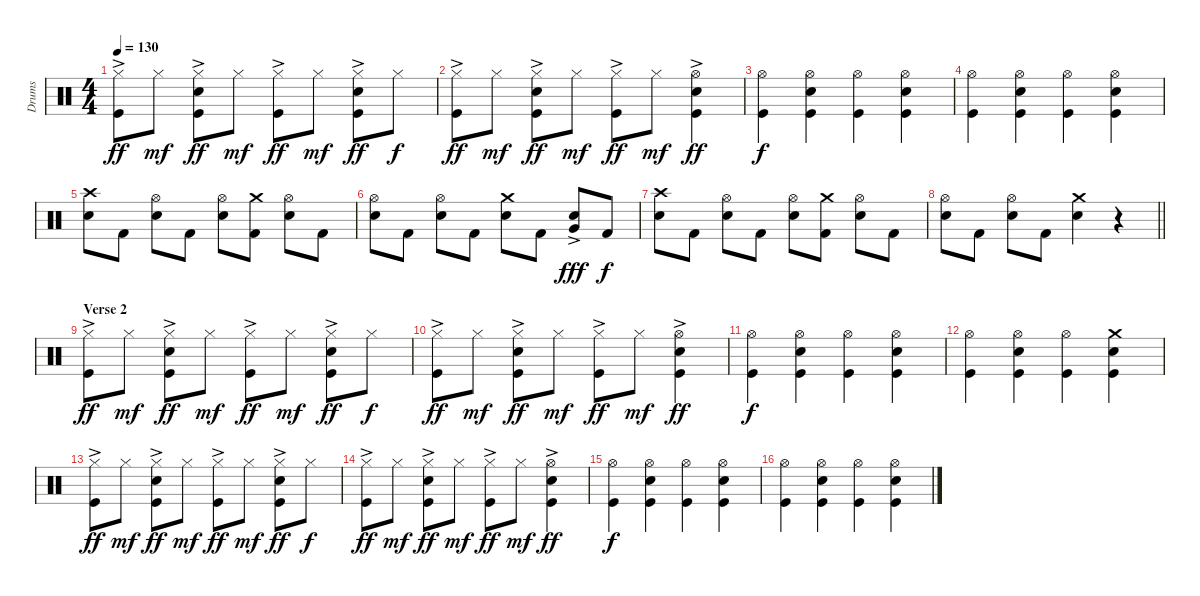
\track ("Drums" "Drums") {instrument percussion}
\staff {score}
\articulation defaults
\ts (4 4)
\tempo 130
\clef neutral
\ks c
("Hi-Hat (closed)"{ac} "Kick (hit)").8{dy ff} "Hi-Hat (closed)".8{dy mf} ("Hi-Hat (closed)"{ac} "Snare (hit) 2" "Kick (hit)").8{dy ff} "Hi-Hat (closed)".8{dy mf} ("Hi-Hat (closed)"{ac} "Kick (hit)").8{dy ff} "Hi-Hat (closed)".8{dy mf} ("Hi-Hat (closed)"{ac} "Snare (hit) 2" "Kick (hit)").8{dy ff} "Hi-Hat (closed)".8{dy f} |
("Hi-Hat (closed)"{ac} "Kick (hit)").8{dy ff} "Hi-Hat (closed)".8{dy mf} ("Hi-Hat (closed)"{ac} "Snare (hit) 2" "Kick (hit)").8{dy ff} "Hi-Hat (closed)".8{dy mf} ("Hi-Hat (closed)"{ac} "Kick (hit)").8{dy ff} "Hi-Hat (closed)".8{dy mf} ("Hi-Hat (open)"{ac} "Snare (hit) 2" "Kick (hit)").4{dy ff} |
("Hi-Hat (open)" "Kick (hit)").4{dy f} ("Hi-Hat (open)" "Snare (hit) 2" "Kick (hit)").4 ("Hi-Hat (open)" "Kick (hit)").4 ("Hi-Hat (open)" "Snare (hit) 2" "Kick (hit)").4 |
("Hi-Hat (open)" "Kick (hit)").4 ("Hi-Hat (open)" "Snare (hit) 2" "Kick (hit)").4 ("Hi-Hat (open)" "Kick (hit)").4 ("Hi-Hat (open)" "Snare (hit) 2" "Kick (hit)").4 |
("Crash high (hit)" "Snare (hit) 2").8 "Kick (hit) 2".8 ("Hi-Hat (open)" "Snare (hit) 2").8 "Kick (hit) 2".8 ("Hi-Hat (open)" "Snare (hit) 2").8 ("Crash medium (hit)" "Kick (hit) 2").8 ("Hi-Hat (open)" "Snare (hit) 2").8 "Kick (hit) 2".8 |
("Hi-Hat (open)" "Snare (hit) 2").8 "Kick (hit) 2".8 ("Hi-Hat (open)" "Snare (hit) 2").8 "Kick (hit) 2".8 ("Crash medium (hit)" "Snare (hit) 2").8 "Kick (hit) 2".8 ("Very Low Tom (hit)"{ac} "Snare (hit) 2").8{dy fff} "Kick (hit) 2".8{dy f} |
("Crash high (hit)" "Snare (hit) 2").8 "Kick (hit) 2".8 ("Hi-Hat (open)" "Snare (hit) 2").8 "Kick (hit) 2".8 ("Hi-Hat (open)" "Snare (hit) 2").8 ("Crash medium (hit)" "Kick (hit) 2").8 ("Hi-Hat (open)" "Snare (hit) 2").8 "Kick (hit) 2".8 |
\barLineRight lightlight
("Hi-Hat (open)" "Snare (hit) 2").8 "Kick (hit) 2".8 ("Hi-Hat (open)" "Snare (hit) 2").8 "Kick (hit) 2".8 ("Crash medium (hit)" "Snare (hit) 2").4 r.4 |
\section ("" "Verse 2")
("Hi-Hat (closed)"{ac} "Kick (hit)").8{dy ff} "Hi-Hat (closed)".8{dy mf} ("Hi-Hat (closed)"{ac} "Snare (hit) 2" "Kick (hit)").8{dy ff} "Hi-Hat (closed)".8{dy mf} ("Hi-Hat (closed)"{ac} "Kick (hit)").8{dy ff} "Hi-Hat (closed)".8{dy mf} ("Hi-Hat (closed)"{ac} "Snare (hit) 2" "Kick (hit)").8{dy ff} "Hi-Hat (closed)".8{dy f} |
("Hi-Hat (closed)"{ac} "Kick (hit)").8{dy ff} "Hi-Hat (closed)".8{dy mf} ("Hi-Hat (closed)"{ac} "Snare (hit) 2" "Kick (hit)").8{dy ff} "Hi-Hat (closed)".8{dy mf} ("Hi-Hat (closed)"{ac} "Kick (hit)").8{dy ff} "Hi-Hat (closed)".8{dy mf} ("Hi-Hat (open)"{ac} "Snare (hit) 2" "Kick (hit)").4{dy ff} |
("Hi-Hat (open)" "Kick (hit)").4{dy f} ("Hi-Hat (open)" "Snare (hit) 2" "Kick (hit)").4 ("Hi-Hat (open)" "Kick (hit)").4 ("Hi-Hat (open)" "Snare (hit) 2" "Kick (hit)").4 |
("Hi-Hat (open)" "Kick (hit)").4 ("Hi-Hat (open)" "Snare (hit) 2" "Kick (hit)").4 ("Hi-Hat (open)" "Kick (hit)").4 ("Crash medium (hit)" "Snare (hit) 2" "Kick (hit)").4 |
("Hi-Hat (closed)"{ac} "Kick (hit)").8{dy ff} "Hi-Hat (closed)".8{dy mf} ("Hi-Hat (closed)"{ac} "Snare (hit) 2" "Kick (hit)").8{dy ff} "Hi-Hat (closed)".8{dy mf} ("Hi-Hat (closed)"{ac} "Kick (hit)").8{dy ff} "Hi-Hat (closed)".8{dy mf} ("Hi-Hat (closed)"{ac} "Snare (hit) 2" "Kick (hit)").8{dy ff} "Hi-Hat (closed)".8{dy f} |
("Hi-Hat (closed)"{ac} "Kick (hit)").8{dy ff} "Hi-Hat (closed)".8{dy mf} ("Hi-Hat (closed)"{ac} "Snare (hit) 2" "Kick (hit)").8{dy ff} "Hi-Hat (closed)".8{dy mf} ("Hi-Hat (closed)"{ac} "Kick (hit)").8{dy ff} "Hi-Hat (closed)".8{dy mf} ("Hi-Hat (open)"{ac} "Snare (hit) 2" "Kick (hit)").4{dy ff} |
("Hi-Hat (open)" "Kick (hit)").4{dy f} ("Hi-Hat (open)" "Snare (hit) 2" "Kick (hit)").4 ("Hi-Hat (open)" "Kick (hit)").4 ("Hi-Hat (open)" "Snare (hit) 2" "Kick (hit)").4 |
("Hi-Hat (open)" "Kick (hit)").4 ("Hi-Hat (open)" "Snare (hit) 2" "Kick (hit)").4 ("Hi-Hat (open)" "Kick (hit)").4 ("Hi-Hat (open)" "Snare (hit) 2" "Kick (hit)").4
